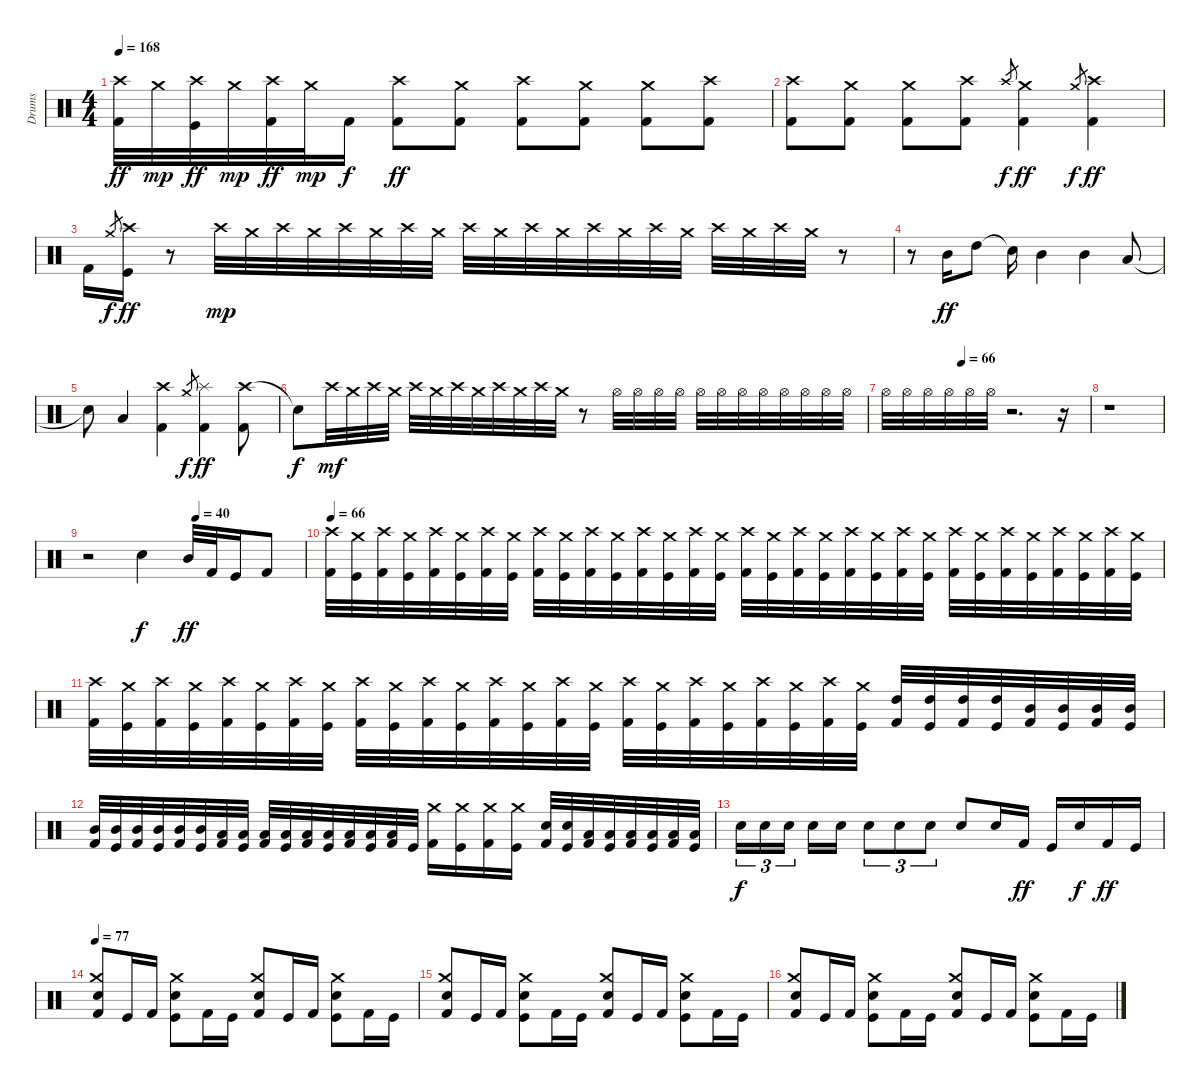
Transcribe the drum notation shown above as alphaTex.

\track ("Drums" "Drums") {instrument percussion}
\staff {score}
\articulation defaults
\ts (4 4)
\tempo 168
\clef neutral
\ks c
("Crash high (hit)" "Kick (hit) 2").32{dy ff} "Crash medium (hit)".32{dy mp} ("Crash high (hit)" "Kick (hit)").32{dy ff} "Crash medium (hit)".32{dy mp} ("Crash high (hit)" "Kick (hit) 2").32{dy ff} "Crash medium (hit)".32{dy mp} "Kick (hit) 2".16{dy f} ("Crash high (hit)" "Kick (hit) 2").8{dy ff} ("Crash medium (hit)" "Kick (hit) 2").8 ("Crash high (hit)" "Kick (hit) 2").8 ("Crash medium (hit)" "Kick (hit) 2").8 ("Crash medium (hit)" "Kick (hit) 2").8 ("Crash high (hit)" "Kick (hit) 2").8 |
("Crash high (hit)" "Kick (hit) 2").8 ("Crash medium (hit)" "Kick (hit) 2").8 ("Crash medium (hit)" "Kick (hit) 2").8 ("Crash high (hit)" "Kick (hit) 2").8 "Crash high (hit)".8{gr dy f} ("Crash medium (hit)" "Kick (hit) 2").4{dy ff} "Crash medium (hit)".8{gr dy f} ("Crash high (hit)" "Kick (hit) 2").4{dy ff} |
"Kick (hit) 2".16 "Crash medium (hit)".8{gr dy f} ("Crash high (hit)" "Kick (hit)").16{dy ff} r.8 "Crash high (hit)".32{dy mp} "Crash medium (hit)".32 "Crash high (hit)".32 "Crash medium (hit)".32 "Crash high (hit)".32 "Crash medium (hit)".32 "Crash high (hit)".32 "Crash medium (hit)".32 "Crash high (hit)".32 "Crash medium (hit)".32 "Crash high (hit)".32 "Crash medium (hit)".32 "Crash high (hit)".32 "Crash medium (hit)".32 "Crash high (hit)".32 "Crash medium (hit)".32 "Crash high (hit)".32 "Crash medium (hit)".32 "Crash high (hit)".32 "Crash medium (hit)".32 r.8 |
r.8 "Mid Tom (hit)".16{dy ff} "High Tom (hit)".8 "Snare (hit)"{t}.16 "Mid Tom (hit)".4 "Mid Tom (hit)".4 "Low Tom (hit)".8 |
"Snare (hit)"{t}.8 "Low Tom (hit)".4 ("Crash high (hit)" "Kick (hit) 2").4 "Crash medium (hit)".8{gr dy f} ("Splash (hit)" "Kick (hit) 2").4{dy ff} ("Crash high (hit)" "Kick (hit) 2").8 |
"Snare (hit)"{t}.8{dy f} "Crash high (hit)".32{dy mf} "Crash medium (hit)".32 "Crash high (hit)".32 "Crash medium (hit)".32 "Crash high (hit)".32 "Crash medium (hit)".32 "Crash high (hit)".32 "Crash medium (hit)".32 "Crash high (hit)".32 "Crash medium (hit)".32 "Crash high (hit)".32 "Crash medium (hit)".32 r.8 "Hi-Hat (open)".32 "Hi-Hat (open)".32 "Hi-Hat (open)".32 "Hi-Hat (open)".32 "Hi-Hat (open)".32 "Hi-Hat (open)".32 "Hi-Hat (open)".32 "Hi-Hat (open)".32 "Hi-Hat (open)".32 "Hi-Hat (open)".32 "Hi-Hat (open)".32 "Hi-Hat (open)".32 |
\tempo (66 0.375)
"Hi-Hat (open)".32 "Hi-Hat (open)".32 "Hi-Hat (open)".32 "Hi-Hat (open)".32 "Hi-Hat (open)".32 "Hi-Hat (open)".32 r.2{d} r.16 |
r.1 |
\tempo (40 0.5)
r.2 "Electric Snare (hit)".4{dy f} "Mid Tom (hit)".32{dy ff} "Kick (hit) 2".32 "Kick (hit)".16 "Kick (hit) 2".8 |
\tempo 66
("Crash high (hit)" "Kick (hit) 2").32 ("Crash medium (hit)" "Kick (hit)").32 ("Crash high (hit)" "Kick (hit) 2").32 ("Crash medium (hit)" "Kick (hit)").32 ("Crash high (hit)" "Kick (hit) 2").32 ("Crash medium (hit)" "Kick (hit)").32 ("Crash high (hit)" "Kick (hit) 2").32 ("Crash medium (hit)" "Kick (hit)").32 ("Crash high (hit)" "Kick (hit) 2").32 ("Crash medium (hit)" "Kick (hit)").32 ("Crash high (hit)" "Kick (hit) 2").32 ("Crash medium (hit)" "Kick (hit)").32 ("Crash high (hit)" "Kick (hit) 2").32 ("Crash medium (hit)" "Kick (hit)").32 ("Crash high (hit)" "Kick (hit) 2").32 ("Crash medium (hit)" "Kick (hit)").32 ("Crash high (hit)" "Kick (hit) 2").32 ("Crash medium (hit)" "Kick (hit)").32 ("Crash high (hit)" "Kick (hit) 2").32 ("Crash medium (hit)" "Kick (hit)").32 ("Crash high (hit)" "Kick (hit) 2").32 ("Crash medium (hit)" "Kick (hit)").32 ("Crash high (hit)" "Kick (hit) 2").32 ("Crash medium (hit)" "Kick (hit)").32 ("Crash high (hit)" "Kick (hit) 2").32 ("Crash medium (hit)" "Kick (hit)").32 ("Crash high (hit)" "Kick (hit) 2").32 ("Crash medium (hit)" "Kick (hit)").32 ("Crash high (hit)" "Kick (hit) 2").32 ("Crash medium (hit)" "Kick (hit)").32 ("Crash high (hit)" "Kick (hit) 2").32 ("Crash medium (hit)" "Kick (hit)").32 |
("Crash high (hit)" "Kick (hit) 2").32 ("Crash medium (hit)" "Kick (hit)").32 ("Crash high (hit)" "Kick (hit) 2").32 ("Crash medium (hit)" "Kick (hit)").32 ("Crash high (hit)" "Kick (hit) 2").32 ("Crash medium (hit)" "Kick (hit)").32 ("Crash high (hit)" "Kick (hit) 2").32 ("Crash medium (hit)" "Kick (hit)").32 ("Crash high (hit)" "Kick (hit) 2").32 ("Crash medium (hit)" "Kick (hit)").32 ("Crash high (hit)" "Kick (hit) 2").32 ("Crash medium (hit)" "Kick (hit)").32 ("Crash high (hit)" "Kick (hit) 2").32 ("Crash medium (hit)" "Kick (hit)").32 ("Crash high (hit)" "Kick (hit) 2").32 ("Crash medium (hit)" "Kick (hit)").32 ("Crash high (hit)" "Kick (hit) 2").32 ("Crash medium (hit)" "Kick (hit)").32 ("Crash high (hit)" "Kick (hit) 2").32 ("Crash medium (hit)" "Kick (hit)").32 ("Crash high (hit)" "Kick (hit) 2").32 ("Crash medium (hit)" "Kick (hit)").32 ("Crash high (hit)" "Kick (hit) 2").32 ("Crash medium (hit)" "Kick (hit)").32 ("High Tom (hit)" "Kick (hit) 2").32 ("High Tom (hit)" "Kick (hit)").32 ("High Tom (hit)" "Kick (hit) 2").32 ("High Tom (hit)" "Kick (hit)").32 ("Mid Tom (hit)" "Kick (hit) 2").32 ("Mid Tom (hit)" "Kick (hit)").32 ("Mid Tom (hit)" "Kick (hit) 2").32 ("Mid Tom (hit)" "Kick (hit)").32 |
("Mid Tom (hit)" "Kick (hit) 2").32 ("Mid Tom (hit)" "Kick (hit)").32 ("Mid Tom (hit)" "Kick (hit) 2").32 ("Mid Tom (hit)" "Kick (hit)").32 ("Mid Tom (hit)" "Kick (hit) 2").32 ("Mid Tom (hit)" "Kick (hit)").32 ("Low Tom (hit)" "Kick (hit) 2").32 ("Low Tom (hit)" "Kick (hit)").32 ("Low Tom (hit)" "Kick (hit) 2").32 ("Low Tom (hit)" "Kick (hit)").32 ("Low Tom (hit)" "Kick (hit) 2").32 ("Low Tom (hit)" "Kick (hit)").32 ("Low Tom (hit)" "Kick (hit) 2").32 ("Low Tom (hit)" "Kick (hit)").32 ("Low Tom (hit)" "Kick (hit) 2").32 "Kick (hit)".32 ("Crash medium (hit)" "Kick (hit) 2").16 ("Crash medium (hit)" "Kick (hit)").16 ("Crash medium (hit)" "Kick (hit) 2").16 ("Crash medium (hit)" "Kick (hit)").16 ("Electric Snare (hit)" "Kick (hit) 2").32 ("Electric Snare (hit)" "Kick (hit)").32 ("Low Tom (hit)" "Kick (hit) 2").32 ("Low Tom (hit)" "Kick (hit)").32 ("Low Tom (hit)" "Kick (hit) 2").32 ("Low Tom (hit)" "Kick (hit)").32 ("Low Tom (hit)" "Kick (hit) 2").32 ("Low Tom (hit)" "Kick (hit)").32 |
"Electric Snare (hit)".16{tu (3 2) dy f} "Electric Snare (hit)".16{tu (3 2)} "Electric Snare (hit)".16{tu (3 2)} "Electric Snare (hit)".16 "Electric Snare (hit)".16 "Electric Snare (hit)".8{tu (3 2)} "Electric Snare (hit)".8{tu (3 2)} "Electric Snare (hit)".8{tu (3 2)} "Electric Snare (hit)".8 "Electric Snare (hit)".16 "Kick (hit) 2".16{dy ff} "Kick (hit)".16 "Electric Snare (hit)".16{dy f} "Kick (hit) 2".16{dy ff} "Kick (hit)".16 |
\tempo 77
("Crash medium (hit)" "Electric Snare (hit)" "Kick (hit) 2").8 "Kick (hit)".16 "Kick (hit) 2".16 ("Crash medium (hit)" "Electric Snare (hit)" "Kick (hit)").8 "Kick (hit) 2".16 "Kick (hit)".16 ("Crash medium (hit)" "Electric Snare (hit)" "Kick (hit) 2").8 "Kick (hit)".16 "Kick (hit) 2".16 ("Crash medium (hit)" "Electric Snare (hit)" "Kick (hit)").8 "Kick (hit) 2".16 "Kick (hit)".16 |
("Crash medium (hit)" "Electric Snare (hit)" "Kick (hit) 2").8 "Kick (hit)".16 "Kick (hit) 2".16 ("Crash medium (hit)" "Electric Snare (hit)" "Kick (hit)").8 "Kick (hit) 2".16 "Kick (hit)".16 ("Crash medium (hit)" "Electric Snare (hit)" "Kick (hit) 2").8 "Kick (hit)".16 "Kick (hit) 2".16 ("Crash medium (hit)" "Electric Snare (hit)" "Kick (hit)").8 "Kick (hit) 2".16 "Kick (hit)".16 |
("Crash medium (hit)" "Electric Snare (hit)" "Kick (hit) 2").8 "Kick (hit)".16 "Kick (hit) 2".16 ("Crash medium (hit)" "Electric Snare (hit)" "Kick (hit)").8 "Kick (hit) 2".16 "Kick (hit)".16 ("Crash medium (hit)" "Electric Snare (hit)" "Kick (hit) 2").8 "Kick (hit)".16 "Kick (hit) 2".16 ("Crash medium (hit)" "Electric Snare (hit)" "Kick (hit)").8 "Kick (hit) 2".16 "Kick (hit)".16
